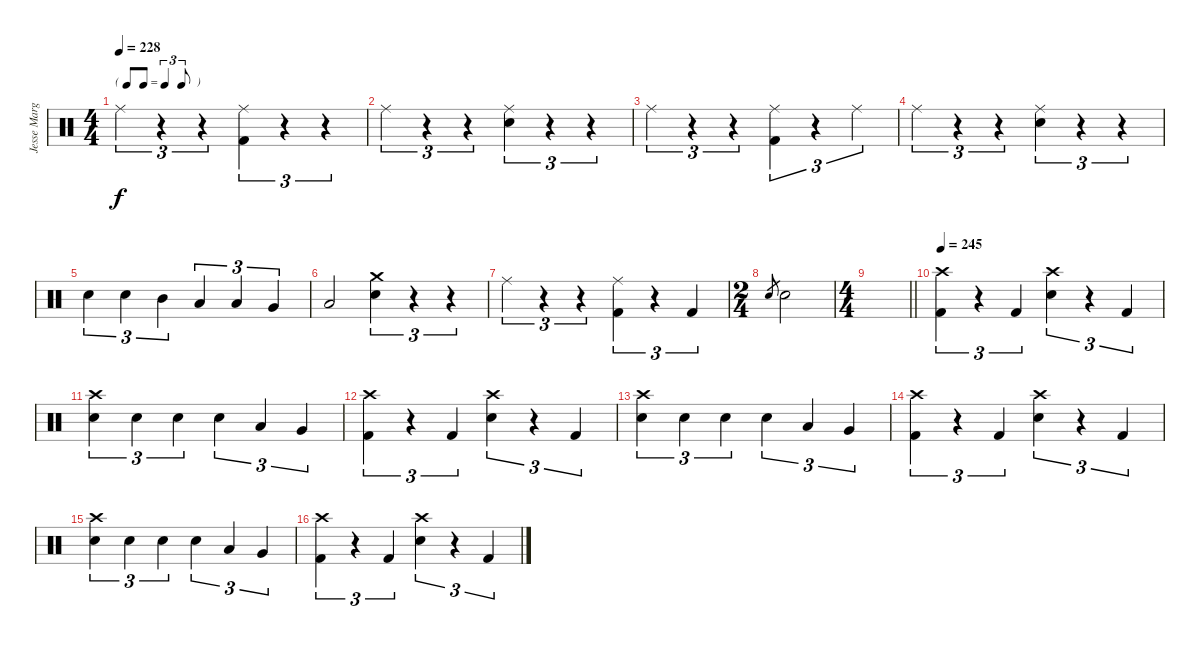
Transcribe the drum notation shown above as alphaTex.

\track ("Jesse Margera" "Jesse Marg") {instrument percussion}
\staff {score}
\articulation defaults
\ts (4 4)
\tf triplet8th
\tempo 228
\clef neutral
\ks c "Ride (middle)".4{tu (3 2) dy f}
r.4{tu (3 2)} r.4{tu (3 2)} ("Ride (middle)" "Kick (hit) 2").4{tu (3 2)} r.4{tu (3 2)} r.4{tu (3 2)} |
"Ride (middle)".4{tu (3 2)} r.4{tu (3 2)} r.4{tu (3 2)} ("Ride (middle)" "Electric Snare (hit)").4{tu (3 2)} r.4{tu (3 2)} r.4{tu (3 2)} |
"Ride (middle)".4{tu (3 2)} r.4{tu (3 2)} r.4{tu (3 2)} ("Ride (middle)" "Kick (hit) 2").4{tu (3 2)} r.4{tu (3 2)} "Ride (middle)".4{tu (3 2)} |
"Ride (middle)".4{tu (3 2)} r.4{tu (3 2)} r.4{tu (3 2)} ("Ride (middle)" "Electric Snare (hit)").4{tu (3 2)} r.4{tu (3 2)} r.4{tu (3 2)} |
"Electric Snare (hit)".4{tu (3 2)} "Electric Snare (hit)".4{tu (3 2)} "Mid Tom (hit)".4{tu (3 2)} "Low Tom (hit)".4{tu (3 2)} "Low Tom (hit)".4{tu (3 2)} "Very Low Tom (hit)".4{tu (3 2)} |
"Low Floor Tom (hit)".2 ("Crash medium (hit)" "Electric Snare (hit)").4{tu (3 2)} r.4{tu (3 2)} r.4{tu (3 2)} |
"Ride (middle)".4{tu (3 2)} r.4{tu (3 2)} r.4{tu (3 2)} ("Ride (middle)" "Kick (hit) 2").4{tu (3 2)} r.4{tu (3 2)} "Kick (hit) 2".4{tu (3 2)} |
\ts (2 4)
"Electric Snare (hit)".8{gr} "Electric Snare (hit)".2 |
\ts (4 4)
\barLineRight lightlight
|
\section ("" "")
\tempo 245
("Crash high (hit)" "Kick (hit) 2").4{tu (3 2)} r.4{tu (3 2)} "Kick (hit) 2".4{tu (3 2)} ("Crash high (hit)" "Electric Snare (hit)").4{tu (3 2)} r.4{tu (3 2)} "Kick (hit) 2".4{tu (3 2)} |
("Crash high (hit)" "Electric Snare (hit)").4{tu (3 2)} "Electric Snare (hit)".4{tu (3 2)} "Electric Snare (hit)".4{tu (3 2)} "Electric Snare (hit)".4{tu (3 2)} "Low Tom (hit)".4{tu (3 2)} "Very Low Tom (hit)".4{tu (3 2)} |
("Crash high (hit)" "Kick (hit) 2").4{tu (3 2)} r.4{tu (3 2)} "Kick (hit) 2".4{tu (3 2)} ("Crash high (hit)" "Electric Snare (hit)").4{tu (3 2)} r.4{tu (3 2)} "Kick (hit) 2".4{tu (3 2)} |
("Crash high (hit)" "Electric Snare (hit)").4{tu (3 2)} "Electric Snare (hit)".4{tu (3 2)} "Electric Snare (hit)".4{tu (3 2)} "Electric Snare (hit)".4{tu (3 2)} "Low Tom (hit)".4{tu (3 2)} "Very Low Tom (hit)".4{tu (3 2)} |
("Crash high (hit)" "Kick (hit) 2").4{tu (3 2)} r.4{tu (3 2)} "Kick (hit) 2".4{tu (3 2)} ("Crash high (hit)" "Electric Snare (hit)").4{tu (3 2)} r.4{tu (3 2)} "Kick (hit) 2".4{tu (3 2)} |
("Crash high (hit)" "Electric Snare (hit)").4{tu (3 2)} "Electric Snare (hit)".4{tu (3 2)} "Electric Snare (hit)".4{tu (3 2)} "Electric Snare (hit)".4{tu (3 2)} "Low Tom (hit)".4{tu (3 2)} "Very Low Tom (hit)".4{tu (3 2)} |
("Crash high (hit)" "Kick (hit) 2").4{tu (3 2)} r.4{tu (3 2)} "Kick (hit) 2".4{tu (3 2)} ("Crash high (hit)" "Electric Snare (hit)").4{tu (3 2)} r.4{tu (3 2)} "Kick (hit) 2".4{tu (3 2)}
